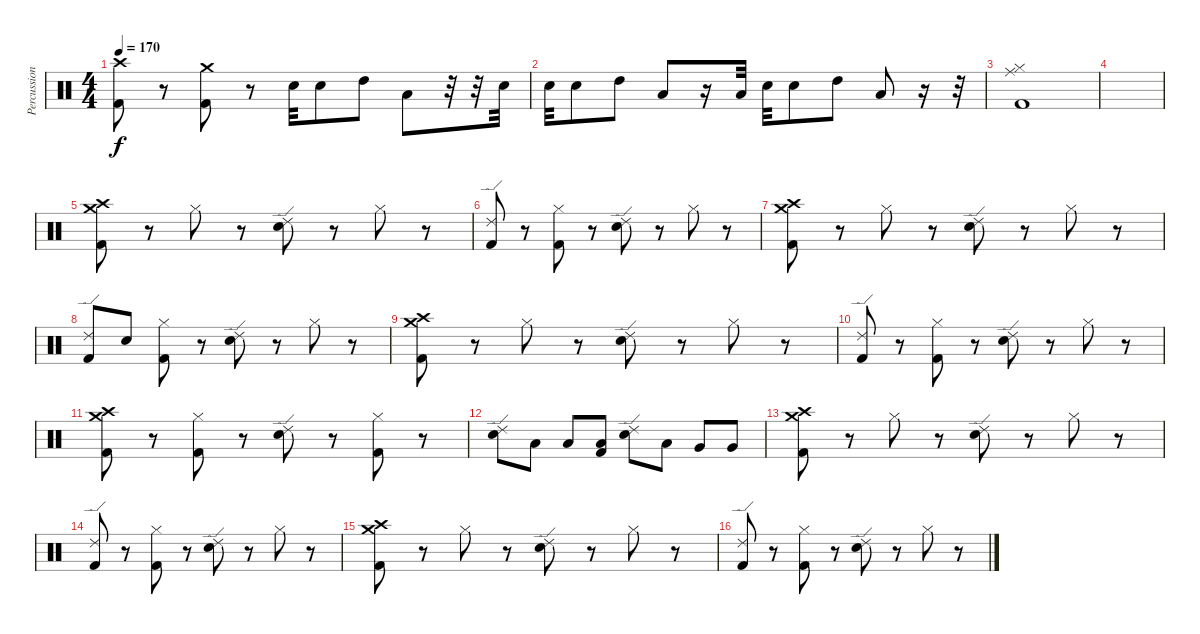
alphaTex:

\track ("Percussion" "Percussion") {instrument percussion}
\staff {score}
\articulation defaults
\ts (4 4)
\tempo 170
\clef neutral
\ks c
("Crash high (hit)" "Kick (hit) 2").8{dy f} r.8 ("Crash medium (hit)" "Kick (hit) 2").8 r.8 "Electric Snare (hit)".32 "Electric Snare (hit)".8 "High Tom (hit)".8 "Low Tom (hit)".8 r.32 r.32 "Electric Snare (hit)".32 |
"Electric Snare (hit)".32 "Electric Snare (hit)".8 "High Tom (hit)".8 "Low Tom (hit)".8 r.16 "Low Tom (hit)".32 "Electric Snare (hit)".32 "Electric Snare (hit)".8 "High Tom (hit)".8 "Low Tom (hit)".8 r.16 r.32 |
("Hi-Hat (closed)" "Ride (middle)" "Kick (hit) 2").1 |
|
("Crash high (hit)" "Crash medium (hit)" "Kick (hit) 2").8 r.8 "Hi-Hat (closed)".8 r.8 ("Ride (edge) 2" "Electric Snare (hit)").8 r.8 "Hi-Hat (closed)".8 r.8 |
("Ride (edge) 2" "Kick (hit) 2").8 r.8 ("Hi-Hat (closed)" "Kick (hit) 2").8 r.8 ("Ride (edge) 2" "Electric Snare (hit)").8 r.8 "Hi-Hat (closed)".8 r.8 |
("Crash high (hit)" "Crash medium (hit)" "Kick (hit) 2").8 r.8 "Hi-Hat (closed)".8 r.8 ("Ride (edge) 2" "Electric Snare (hit)").8 r.8 "Hi-Hat (closed)".8 r.8 |
("Ride (edge) 2" "Kick (hit) 2").8 "Electric Snare (hit)".8 ("Hi-Hat (closed)" "Kick (hit) 2").8 r.8 ("Ride (edge) 2" "Electric Snare (hit)").8 r.8 "Hi-Hat (closed)".8 r.8 |
("Crash high (hit)" "Crash medium (hit)" "Kick (hit) 2").8 r.8 "Hi-Hat (closed)".8 r.8 ("Ride (edge) 2" "Electric Snare (hit)").8 r.8 "Hi-Hat (closed)".8 r.8 |
("Ride (edge) 2" "Kick (hit) 2").8 r.8 ("Hi-Hat (closed)" "Kick (hit) 2").8 r.8 ("Ride (edge) 2" "Electric Snare (hit)").8 r.8 "Hi-Hat (closed)".8 r.8 |
("Crash high (hit)" "Crash medium (hit)" "Kick (hit) 2").8 r.8 ("Hi-Hat (closed)" "Kick (hit) 2").8 r.8 ("Ride (edge) 2" "Electric Snare (hit)").8 r.8 ("Hi-Hat (closed)" "Kick (hit) 2").8 r.8 |
("Ride (edge) 2" "Electric Snare (hit)").8 "Low Tom (hit)".8 "Low Tom (hit)".8 ("Low Tom (hit)" "Kick (hit) 2").8 ("Ride (edge) 2" "Electric Snare (hit)").8 "Low Tom (hit)".8 "Very Low Tom (hit)".8 "Very Low Tom (hit)".8 |
("Crash high (hit)" "Crash medium (hit)" "Kick (hit) 2").8 r.8 "Hi-Hat (closed)".8 r.8 ("Ride (edge) 2" "Electric Snare (hit)").8 r.8 "Hi-Hat (closed)".8 r.8 |
("Ride (edge) 2" "Kick (hit) 2").8 r.8 ("Hi-Hat (closed)" "Kick (hit) 2").8 r.8 ("Ride (edge) 2" "Electric Snare (hit)").8 r.8 "Hi-Hat (closed)".8 r.8 |
("Crash high (hit)" "Crash medium (hit)" "Kick (hit) 2").8 r.8 "Hi-Hat (closed)".8 r.8 ("Ride (edge) 2" "Electric Snare (hit)").8 r.8 "Hi-Hat (closed)".8 r.8 |
("Ride (edge) 2" "Kick (hit) 2").8 r.8 ("Hi-Hat (closed)" "Kick (hit) 2").8 r.8 ("Ride (edge) 2" "Electric Snare (hit)").8 r.8 "Hi-Hat (closed)".8 r.8
